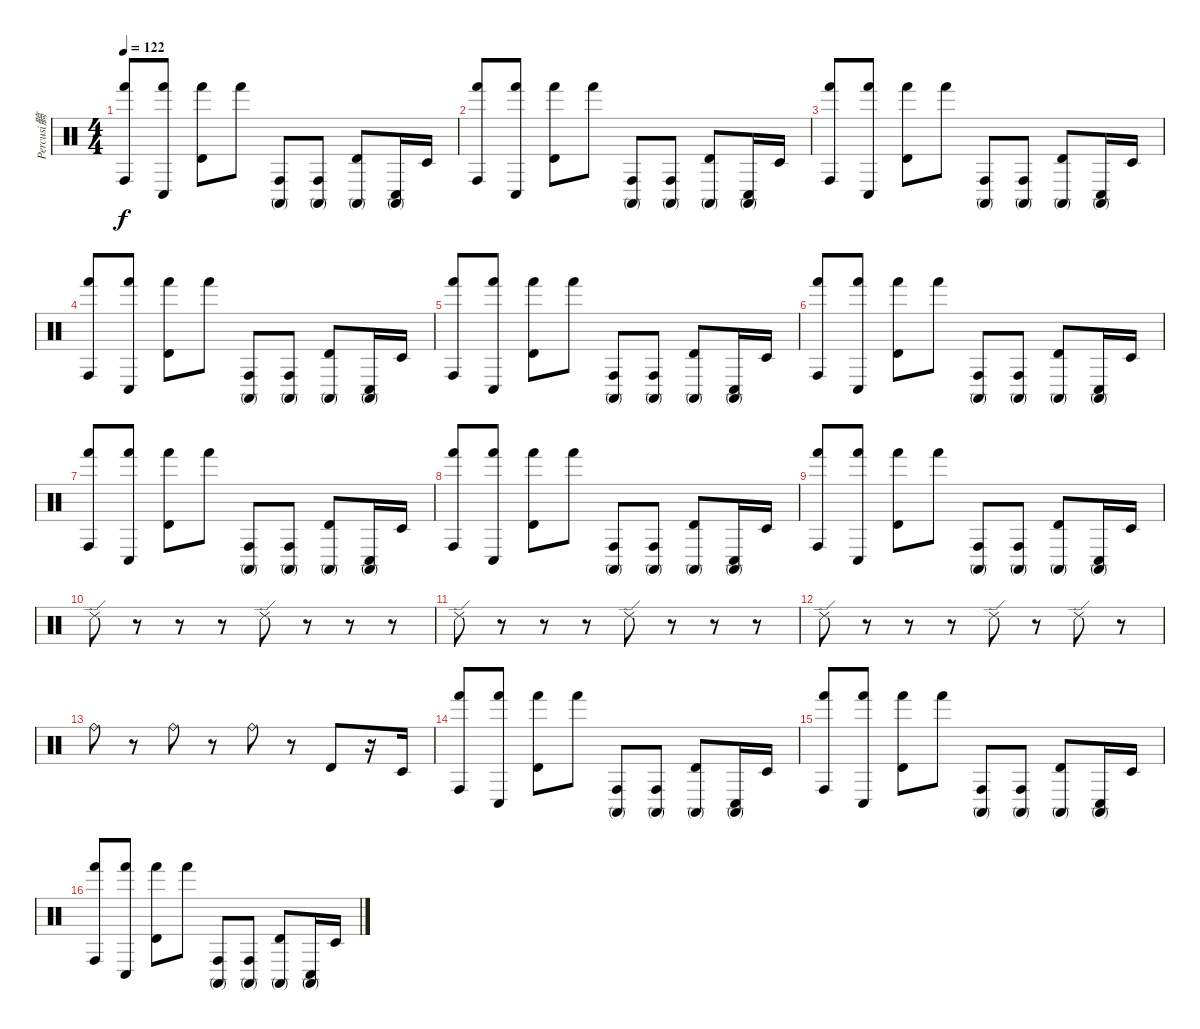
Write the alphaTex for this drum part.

\track ("Percusi髇" "Percusi髇") {instrument percussion}
\staff {score}
\articulation defaults
\ts (4 4)
\tempo 122
\clef neutral
\ks c
("Hand (hit)" "Conga high (hit)").8{dy f} ("Hand (hit)" "Conga low (hit)").8 ("Hand (hit)" "Timbale high (hit)").8 "Hand (hit)".8 ("Conga high (mute)" "Conga high (hit)").8 ("Conga high (mute)" "Conga high (hit)").8 ("Conga high (mute)" "Timbale high (hit)").8 ("Conga high (mute)" "Conga low (hit)").16 "Timbale low (hit)".16 |
("Hand (hit)" "Conga high (hit)").8 ("Hand (hit)" "Conga low (hit)").8 ("Hand (hit)" "Timbale high (hit)").8 "Hand (hit)".8 ("Conga high (mute)" "Conga high (hit)").8 ("Conga high (mute)" "Conga high (hit)").8 ("Conga high (mute)" "Timbale high (hit)").8 ("Conga high (mute)" "Conga low (hit)").16 "Timbale low (hit)".16 |
("Hand (hit)" "Conga high (hit)").8 ("Hand (hit)" "Conga low (hit)").8 ("Hand (hit)" "Timbale high (hit)").8 "Hand (hit)".8 ("Conga high (mute)" "Conga high (hit)").8 ("Conga high (mute)" "Conga high (hit)").8 ("Conga high (mute)" "Timbale high (hit)").8 ("Conga high (mute)" "Conga low (hit)").16 "Timbale low (hit)".16 |
("Hand (hit)" "Conga high (hit)").8 ("Hand (hit)" "Conga low (hit)").8 ("Hand (hit)" "Timbale high (hit)").8 "Hand (hit)".8 ("Conga high (mute)" "Conga high (hit)").8 ("Conga high (mute)" "Conga high (hit)").8 ("Conga high (mute)" "Timbale high (hit)").8 ("Conga high (mute)" "Conga low (hit)").16 "Timbale low (hit)".16 |
("Hand (hit)" "Conga high (hit)").8 ("Hand (hit)" "Conga low (hit)").8 ("Hand (hit)" "Timbale high (hit)").8 "Hand (hit)".8 ("Conga high (mute)" "Conga high (hit)").8 ("Conga high (mute)" "Conga high (hit)").8 ("Conga high (mute)" "Timbale high (hit)").8 ("Conga high (mute)" "Conga low (hit)").16 "Timbale low (hit)".16 |
("Hand (hit)" "Conga high (hit)").8 ("Hand (hit)" "Conga low (hit)").8 ("Hand (hit)" "Timbale high (hit)").8 "Hand (hit)".8 ("Conga high (mute)" "Conga high (hit)").8 ("Conga high (mute)" "Conga high (hit)").8 ("Conga high (mute)" "Timbale high (hit)").8 ("Conga high (mute)" "Conga low (hit)").16 "Timbale low (hit)".16 |
("Hand (hit)" "Conga high (hit)").8 ("Hand (hit)" "Conga low (hit)").8 ("Hand (hit)" "Timbale high (hit)").8 "Hand (hit)".8 ("Conga high (mute)" "Conga high (hit)").8 ("Conga high (mute)" "Conga high (hit)").8 ("Conga high (mute)" "Timbale high (hit)").8 ("Conga high (mute)" "Conga low (hit)").16 "Timbale low (hit)".16 |
("Hand (hit)" "Conga high (hit)").8 ("Hand (hit)" "Conga low (hit)").8 ("Hand (hit)" "Timbale high (hit)").8 "Hand (hit)".8 ("Conga high (mute)" "Conga high (hit)").8 ("Conga high (mute)" "Conga high (hit)").8 ("Conga high (mute)" "Timbale high (hit)").8 ("Conga high (mute)" "Conga low (hit)").16 "Timbale low (hit)".16 |
("Hand (hit)" "Conga high (hit)").8 ("Hand (hit)" "Conga low (hit)").8 ("Hand (hit)" "Timbale high (hit)").8 "Hand (hit)".8 ("Conga high (mute)" "Conga high (hit)").8 ("Conga high (mute)" "Conga high (hit)").8 ("Conga high (mute)" "Timbale high (hit)").8 ("Conga high (mute)" "Conga low (hit)").16 "Timbale low (hit)".16 |
"Ride (edge) 2".8 r.8 r.8 r.8 "Ride (edge) 2".8 r.8 r.8 r.8 |
"Ride (edge) 2".8 r.8 r.8 r.8 "Ride (edge) 2".8 r.8 r.8 r.8 |
"Ride (edge) 2".8 r.8 r.8 r.8 "Ride (edge) 2".8 r.8 "Ride (edge) 2".8 r.8 |
"Ride (bell)".8 r.8 "Ride (bell)".8 r.8 "Ride (bell)".8 r.8 "Timbale high (hit)".8 r.16 "Timbale low (hit)".16 |
("Hand (hit)" "Conga high (hit)").8 ("Hand (hit)" "Conga low (hit)").8 ("Hand (hit)" "Timbale high (hit)").8 "Hand (hit)".8 ("Conga high (mute)" "Conga high (hit)").8 ("Conga high (mute)" "Conga high (hit)").8 ("Conga high (mute)" "Timbale high (hit)").8 ("Conga high (mute)" "Conga low (hit)").16 "Timbale low (hit)".16 |
("Hand (hit)" "Conga high (hit)").8 ("Hand (hit)" "Conga low (hit)").8 ("Hand (hit)" "Timbale high (hit)").8 "Hand (hit)".8 ("Conga high (mute)" "Conga high (hit)").8 ("Conga high (mute)" "Conga high (hit)").8 ("Conga high (mute)" "Timbale high (hit)").8 ("Conga high (mute)" "Conga low (hit)").16 "Timbale low (hit)".16 |
("Hand (hit)" "Conga high (hit)").8 ("Hand (hit)" "Conga low (hit)").8 ("Hand (hit)" "Timbale high (hit)").8 "Hand (hit)".8 ("Conga high (mute)" "Conga high (hit)").8 ("Conga high (mute)" "Conga high (hit)").8 ("Conga high (mute)" "Timbale high (hit)").8 ("Conga high (mute)" "Conga low (hit)").16 "Timbale low (hit)".16
